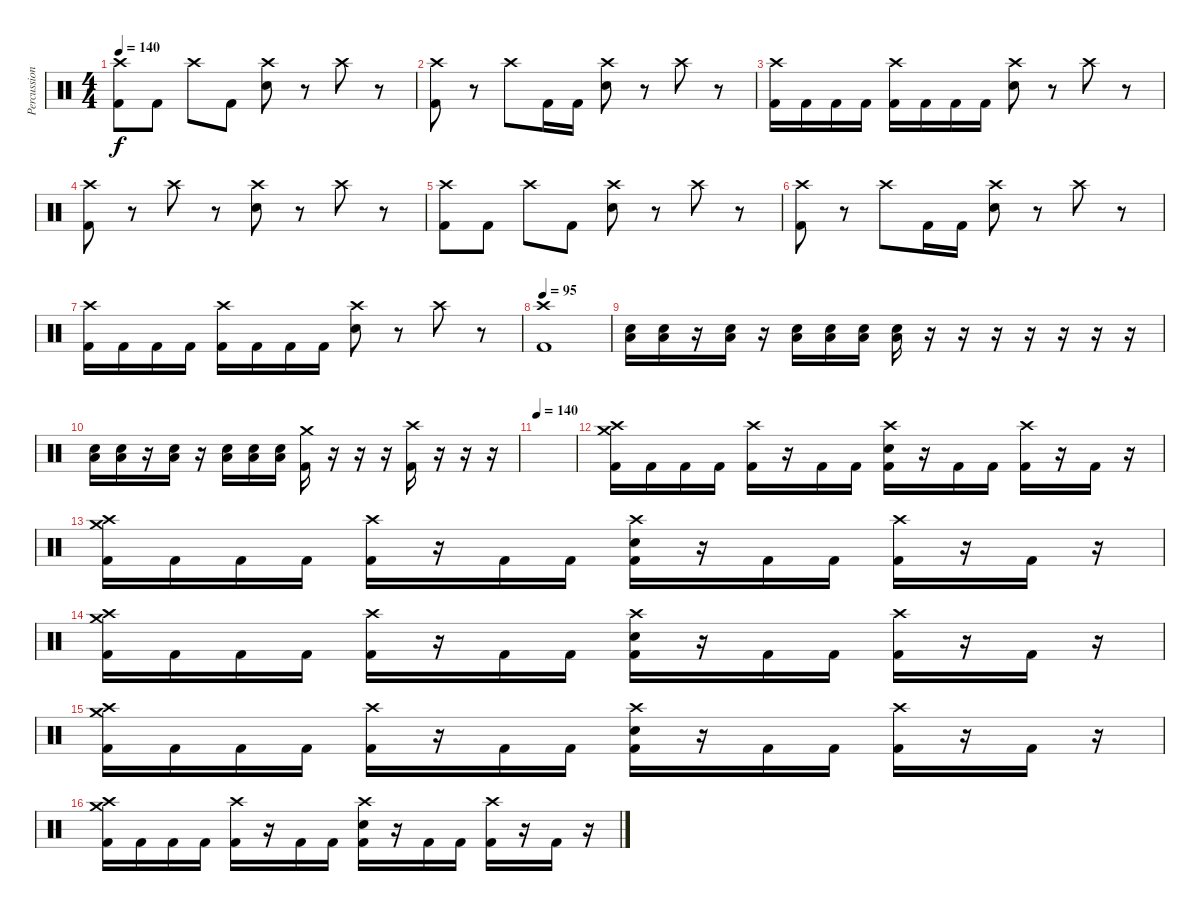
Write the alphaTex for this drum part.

\track ("Percussion" "Percussion") {instrument percussion}
\staff {score}
\articulation defaults
\ts (4 4)
\tempo 140
\clef neutral
\ks c
("Crash high (hit)" "Kick (hit) 2").8{dy f} "Kick (hit) 2".8 "Crash high (hit)".8 "Kick (hit) 2".8 ("Crash high (hit)" "Electric Snare (hit)").8 r.8 "Crash high (hit)".8 r.8 |
("Crash high (hit)" "Kick (hit) 2").8 r.8 "Crash high (hit)".8 "Kick (hit) 2".16 "Kick (hit) 2".16 ("Crash high (hit)" "Electric Snare (hit)").8 r.8 "Crash high (hit)".8 r.8 |
("Crash high (hit)" "Kick (hit) 2").16 "Kick (hit) 2".16 "Kick (hit) 2".16 "Kick (hit) 2".16 ("Crash high (hit)" "Kick (hit) 2").16 "Kick (hit) 2".16 "Kick (hit) 2".16 "Kick (hit) 2".16 ("Crash high (hit)" "Electric Snare (hit)").8 r.8 "Crash high (hit)".8 r.8 |
("Crash high (hit)" "Kick (hit) 2").8 r.8 "Crash high (hit)".8 r.8 ("Crash high (hit)" "Electric Snare (hit)").8 r.8 "Crash high (hit)".8 r.8 |
("Crash high (hit)" "Kick (hit) 2").8 "Kick (hit) 2".8 "Crash high (hit)".8 "Kick (hit) 2".8 ("Crash high (hit)" "Electric Snare (hit)").8 r.8 "Crash high (hit)".8 r.8 |
("Crash high (hit)" "Kick (hit) 2").8 r.8 "Crash high (hit)".8 "Kick (hit) 2".16 "Kick (hit) 2".16 ("Crash high (hit)" "Electric Snare (hit)").8 r.8 "Crash high (hit)".8 r.8 |
("Crash high (hit)" "Kick (hit) 2").16 "Kick (hit) 2".16 "Kick (hit) 2".16 "Kick (hit) 2".16 ("Crash high (hit)" "Kick (hit) 2").16 "Kick (hit) 2".16 "Kick (hit) 2".16 "Kick (hit) 2".16 ("Crash high (hit)" "Electric Snare (hit)").8 r.8 "Crash high (hit)".8 r.8 |
\tempo 95
("Crash high (hit)" "Kick (hit) 2").1 |
("Electric Snare (hit)" "Low Floor Tom (hit)").16 ("Electric Snare (hit)" "Low Floor Tom (hit)").16 r.16 ("Electric Snare (hit)" "Low Floor Tom (hit)").16 r.16 ("Electric Snare (hit)" "Low Floor Tom (hit)").16 ("Electric Snare (hit)" "Low Floor Tom (hit)").16 ("Electric Snare (hit)" "Low Floor Tom (hit)").16 ("Electric Snare (hit)" "Low Floor Tom (hit)").16 r.16 r.16 r.16 r.16 r.16 r.16 r.16 |
("Electric Snare (hit)" "Low Floor Tom (hit)").16 ("Electric Snare (hit)" "Low Floor Tom (hit)").16 r.16 ("Electric Snare (hit)" "Low Floor Tom (hit)").16 r.16 ("Electric Snare (hit)" "Low Floor Tom (hit)").16 ("Electric Snare (hit)" "Low Floor Tom (hit)").16 ("Electric Snare (hit)" "Low Floor Tom (hit)").16 ("Crash medium (hit)" "Kick (hit) 2").16 r.16 r.16 r.16 ("Crash high (hit)" "Kick (hit) 2").16 r.16 r.16 r.16 |
\tempo 140
|
("Crash medium (hit)" "Crash high (hit)" "Kick (hit) 2").16 "Kick (hit) 2".16 "Kick (hit) 2".16 "Kick (hit) 2".16 ("Crash high (hit)" "Kick (hit) 2").16 r.16 "Kick (hit) 2".16 "Kick (hit) 2".16 ("Crash high (hit)" "Electric Snare (hit)" "Kick (hit) 2").16 r.16 "Kick (hit) 2".16 "Kick (hit) 2".16 ("Crash high (hit)" "Kick (hit) 2").16 r.16 "Kick (hit) 2".16 r.16 |
("Crash medium (hit)" "Crash high (hit)" "Kick (hit) 2").16 "Kick (hit) 2".16 "Kick (hit) 2".16 "Kick (hit) 2".16 ("Crash high (hit)" "Kick (hit) 2").16 r.16 "Kick (hit) 2".16 "Kick (hit) 2".16 ("Crash high (hit)" "Electric Snare (hit)" "Kick (hit) 2").16 r.16 "Kick (hit) 2".16 "Kick (hit) 2".16 ("Crash high (hit)" "Kick (hit) 2").16 r.16 "Kick (hit) 2".16 r.16 |
("Crash medium (hit)" "Crash high (hit)" "Kick (hit) 2").16 "Kick (hit) 2".16 "Kick (hit) 2".16 "Kick (hit) 2".16 ("Crash high (hit)" "Kick (hit) 2").16 r.16 "Kick (hit) 2".16 "Kick (hit) 2".16 ("Crash high (hit)" "Electric Snare (hit)" "Kick (hit) 2").16 r.16 "Kick (hit) 2".16 "Kick (hit) 2".16 ("Crash high (hit)" "Kick (hit) 2").16 r.16 "Kick (hit) 2".16 r.16 |
("Crash medium (hit)" "Crash high (hit)" "Kick (hit) 2").16 "Kick (hit) 2".16 "Kick (hit) 2".16 "Kick (hit) 2".16 ("Crash high (hit)" "Kick (hit) 2").16 r.16 "Kick (hit) 2".16 "Kick (hit) 2".16 ("Crash high (hit)" "Electric Snare (hit)" "Kick (hit) 2").16 r.16 "Kick (hit) 2".16 "Kick (hit) 2".16 ("Crash high (hit)" "Kick (hit) 2").16 r.16 "Kick (hit) 2".16 r.16 |
("Crash medium (hit)" "Crash high (hit)" "Kick (hit) 2").16 "Kick (hit) 2".16 "Kick (hit) 2".16 "Kick (hit) 2".16 ("Crash high (hit)" "Kick (hit) 2").16 r.16 "Kick (hit) 2".16 "Kick (hit) 2".16 ("Crash high (hit)" "Electric Snare (hit)" "Kick (hit) 2").16 r.16 "Kick (hit) 2".16 "Kick (hit) 2".16 ("Crash high (hit)" "Kick (hit) 2").16 r.16 "Kick (hit) 2".16 r.16
